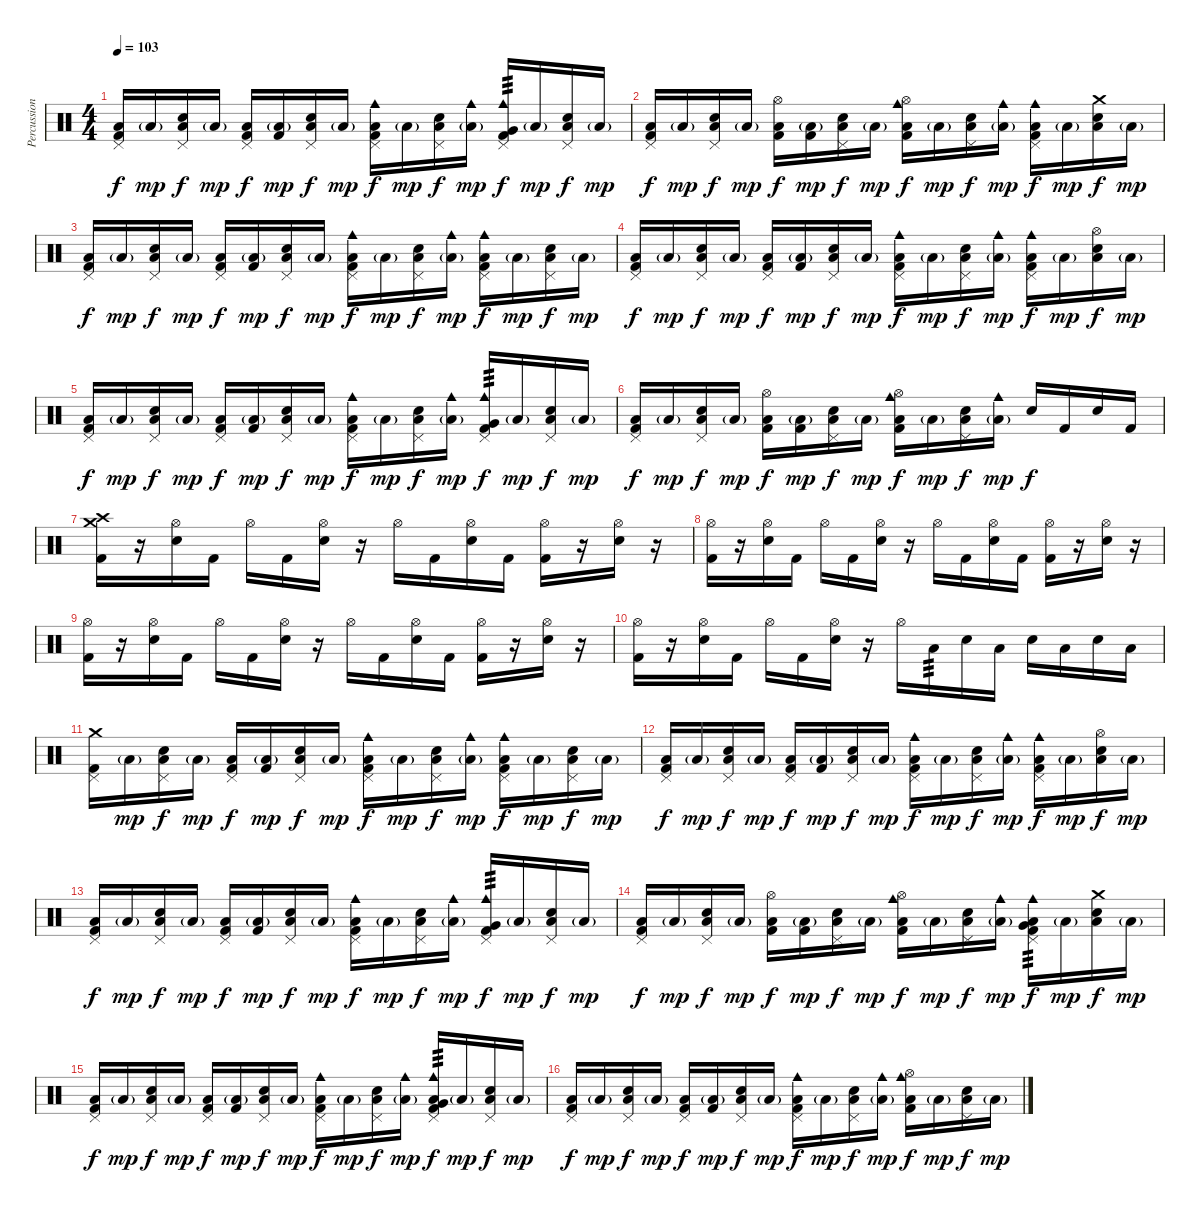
\track ("Percussion" "Percussion") {instrument percussion}
\staff {score}
\articulation defaults
\ts (4 4)
\tempo 103
\clef neutral
\ks c
("Low Floor Tom (hit)" "Kick (hit) 2" "Pedal Hi-Hat (hit)").16{dy f} "Low Floor Tom (hit)"{g}.16{dy mp} ("Low Floor Tom (hit)" "Electric Snare (hit)" "Pedal Hi-Hat (hit)").16{dy f} "Low Floor Tom (hit)"{g}.16{dy mp} ("Low Floor Tom (hit)" "Kick (hit) 2" "Pedal Hi-Hat (hit)").16{dy f} ("Low Floor Tom (hit)"{g} "Kick (hit) 2").16{dy mp} ("Low Floor Tom (hit)" "Electric Snare (hit)" "Pedal Hi-Hat (hit)").16{dy f} "Low Floor Tom (hit)"{g}.16{dy mp} ("Low Floor Tom (hit)" "Kick (hit) 2" "Cowbell medium (hit)" "Pedal Hi-Hat (hit)").16{dy f} "Low Floor Tom (hit)"{g}.16{dy mp} ("Low Floor Tom (hit)" "Electric Snare (hit)" "Pedal Hi-Hat (hit)").16{dy f} ("Low Floor Tom (hit)"{g} "Cowbell medium (hit)").16{dy mp} ("Very Low Tom (hit)" "Kick (hit) 2" "Cowbell medium (hit)" "Pedal Hi-Hat (hit)").16{tp 3 dy f} "Low Floor Tom (hit)"{g}.16{dy mp} ("Low Floor Tom (hit)" "Electric Snare (hit)" "Pedal Hi-Hat (hit)").16{dy f} "Low Floor Tom (hit)"{g}.16{dy mp} |
("Low Floor Tom (hit)" "Kick (hit) 2" "Pedal Hi-Hat (hit)").16{dy f} "Low Floor Tom (hit)"{g}.16{dy mp} ("Low Floor Tom (hit)" "Electric Snare (hit)" "Pedal Hi-Hat (hit)").16{dy f} "Low Floor Tom (hit)"{g}.16{dy mp} ("Low Floor Tom (hit)" "Kick (hit) 2" "Hi-Hat (open)").16{dy f} ("Low Floor Tom (hit)"{g} "Kick (hit) 2").16{dy mp} ("Low Floor Tom (hit)" "Electric Snare (hit)" "Pedal Hi-Hat (hit)").16{dy f} "Low Floor Tom (hit)"{g}.16{dy mp} ("Low Floor Tom (hit)" "Kick (hit) 2" "Cowbell medium (hit)" "Hi-Hat (open)").16{dy f} "Low Floor Tom (hit)"{g}.16{dy mp} ("Low Floor Tom (hit)" "Electric Snare (hit)" "Pedal Hi-Hat (hit)").16{dy f} ("Low Floor Tom (hit)"{g} "Cowbell medium (hit)").16{dy mp} ("Low Floor Tom (hit)" "Kick (hit) 2" "Cowbell medium (hit)" "Pedal Hi-Hat (hit)").16{dy f} "Low Floor Tom (hit)"{g}.16{dy mp} ("Low Floor Tom (hit)" "Electric Snare (hit)" "Crash medium (hit)").16{dy f} "Low Floor Tom (hit)"{g}.16{dy mp} |
("Low Floor Tom (hit)" "Kick (hit) 2" "Pedal Hi-Hat (hit)").16{dy f} "Low Floor Tom (hit)"{g}.16{dy mp} ("Low Floor Tom (hit)" "Electric Snare (hit)" "Pedal Hi-Hat (hit)").16{dy f} "Low Floor Tom (hit)"{g}.16{dy mp} ("Low Floor Tom (hit)" "Kick (hit) 2" "Pedal Hi-Hat (hit)").16{dy f} ("Low Floor Tom (hit)"{g} "Kick (hit) 2").16{dy mp} ("Low Floor Tom (hit)" "Electric Snare (hit)" "Pedal Hi-Hat (hit)").16{dy f} "Low Floor Tom (hit)"{g}.16{dy mp} ("Low Floor Tom (hit)" "Kick (hit) 2" "Cowbell medium (hit)" "Pedal Hi-Hat (hit)").16{dy f} "Low Floor Tom (hit)"{g}.16{dy mp} ("Low Floor Tom (hit)" "Electric Snare (hit)" "Pedal Hi-Hat (hit)").16{dy f} ("Low Floor Tom (hit)"{g} "Cowbell medium (hit)").16{dy mp} ("Low Floor Tom (hit)" "Kick (hit) 2" "Cowbell medium (hit)" "Pedal Hi-Hat (hit)").16{dy f} "Low Floor Tom (hit)"{g}.16{dy mp} ("Low Floor Tom (hit)" "Electric Snare (hit)" "Pedal Hi-Hat (hit)").16{dy f} "Low Floor Tom (hit)"{g}.16{dy mp} |
("Low Floor Tom (hit)" "Kick (hit) 2" "Pedal Hi-Hat (hit)").16{dy f} "Low Floor Tom (hit)"{g}.16{dy mp} ("Low Floor Tom (hit)" "Electric Snare (hit)" "Pedal Hi-Hat (hit)").16{dy f} "Low Floor Tom (hit)"{g}.16{dy mp} ("Low Floor Tom (hit)" "Kick (hit) 2" "Pedal Hi-Hat (hit)").16{dy f} ("Low Floor Tom (hit)"{g} "Kick (hit) 2").16{dy mp} ("Low Floor Tom (hit)" "Electric Snare (hit)" "Pedal Hi-Hat (hit)").16{dy f} "Low Floor Tom (hit)"{g}.16{dy mp} ("Low Floor Tom (hit)" "Kick (hit) 2" "Cowbell medium (hit)" "Pedal Hi-Hat (hit)").16{dy f} "Low Floor Tom (hit)"{g}.16{dy mp} ("Low Floor Tom (hit)" "Electric Snare (hit)" "Pedal Hi-Hat (hit)").16{dy f} ("Low Floor Tom (hit)"{g} "Cowbell medium (hit)").16{dy mp} ("Low Floor Tom (hit)" "Kick (hit) 2" "Cowbell medium (hit)" "Pedal Hi-Hat (hit)").16{dy f} "Low Floor Tom (hit)"{g}.16{dy mp} ("Low Floor Tom (hit)" "Electric Snare (hit)" "Hi-Hat (open)").16{dy f} "Low Floor Tom (hit)"{g}.16{dy mp} |
("Low Floor Tom (hit)" "Kick (hit) 2" "Pedal Hi-Hat (hit)").16{dy f} "Low Floor Tom (hit)"{g}.16{dy mp} ("Low Floor Tom (hit)" "Electric Snare (hit)" "Pedal Hi-Hat (hit)").16{dy f} "Low Floor Tom (hit)"{g}.16{dy mp} ("Low Floor Tom (hit)" "Kick (hit) 2" "Pedal Hi-Hat (hit)").16{dy f} ("Low Floor Tom (hit)"{g} "Kick (hit) 2").16{dy mp} ("Low Floor Tom (hit)" "Electric Snare (hit)" "Pedal Hi-Hat (hit)").16{dy f} "Low Floor Tom (hit)"{g}.16{dy mp} ("Low Floor Tom (hit)" "Kick (hit) 2" "Cowbell medium (hit)" "Pedal Hi-Hat (hit)").16{dy f} "Low Floor Tom (hit)"{g}.16{dy mp} ("Low Floor Tom (hit)" "Electric Snare (hit)" "Pedal Hi-Hat (hit)").16{dy f} ("Low Floor Tom (hit)"{g} "Cowbell medium (hit)").16{dy mp} ("Very Low Tom (hit)" "Kick (hit) 2" "Cowbell medium (hit)" "Pedal Hi-Hat (hit)").16{tp 3 dy f} "Low Floor Tom (hit)"{g}.16{dy mp} ("Low Floor Tom (hit)" "Electric Snare (hit)" "Pedal Hi-Hat (hit)").16{dy f} "Low Floor Tom (hit)"{g}.16{dy mp} |
("Low Floor Tom (hit)" "Kick (hit) 2" "Pedal Hi-Hat (hit)").16{dy f} "Low Floor Tom (hit)"{g}.16{dy mp} ("Low Floor Tom (hit)" "Electric Snare (hit)" "Pedal Hi-Hat (hit)").16{dy f} "Low Floor Tom (hit)"{g}.16{dy mp} ("Low Floor Tom (hit)" "Kick (hit) 2" "Hi-Hat (open)").16{dy f} ("Low Floor Tom (hit)"{g} "Kick (hit) 2").16{dy mp} ("Low Floor Tom (hit)" "Electric Snare (hit)" "Pedal Hi-Hat (hit)").16{dy f} "Low Floor Tom (hit)"{g}.16{dy mp} ("Low Floor Tom (hit)" "Kick (hit) 2" "Cowbell medium (hit)" "Hi-Hat (open)").16{dy f} "Low Floor Tom (hit)"{g}.16{dy mp} ("Low Floor Tom (hit)" "Electric Snare (hit)" "Pedal Hi-Hat (hit)").16{dy f} ("Low Floor Tom (hit)"{g} "Cowbell medium (hit)").16{dy mp} "Electric Snare (hit)".16{dy f} "Kick (hit) 2".16 "Electric Snare (hit)".16 "Kick (hit) 2".16 |
("Crash medium (hit)" "Kick (hit) 2" "Crash high (hit)").16 r.16 ("Hi-Hat (open)" "Electric Snare (hit)").16 "Kick (hit) 2".16 "Hi-Hat (open)".16 "Kick (hit) 2".16 ("Hi-Hat (open)" "Electric Snare (hit)").16 r.16 "Hi-Hat (open)".16 "Kick (hit) 2".16 ("Hi-Hat (open)" "Electric Snare (hit)").16 "Kick (hit) 2".16 ("Hi-Hat (open)" "Kick (hit) 2").16 r.16 ("Hi-Hat (open)" "Electric Snare (hit)").16 r.16 |
("Hi-Hat (open)" "Kick (hit) 2").16 r.16 ("Hi-Hat (open)" "Electric Snare (hit)").16 "Kick (hit) 2".16 "Hi-Hat (open)".16 "Kick (hit) 2".16 ("Hi-Hat (open)" "Electric Snare (hit)").16 r.16 "Hi-Hat (open)".16 "Kick (hit) 2".16 ("Hi-Hat (open)" "Electric Snare (hit)").16 "Kick (hit) 2".16 ("Hi-Hat (open)" "Kick (hit) 2").16 r.16 ("Hi-Hat (open)" "Electric Snare (hit)").16 r.16 |
("Hi-Hat (open)" "Kick (hit) 2").16 r.16 ("Hi-Hat (open)" "Electric Snare (hit)").16 "Kick (hit) 2".16 "Hi-Hat (open)".16 "Kick (hit) 2".16 ("Hi-Hat (open)" "Electric Snare (hit)").16 r.16 "Hi-Hat (open)".16 "Kick (hit) 2".16 ("Hi-Hat (open)" "Electric Snare (hit)").16 "Kick (hit) 2".16 ("Hi-Hat (open)" "Kick (hit) 2").16 r.16 ("Hi-Hat (open)" "Electric Snare (hit)").16 r.16 |
("Hi-Hat (open)" "Kick (hit) 2").16 r.16 ("Hi-Hat (open)" "Electric Snare (hit)").16 "Kick (hit) 2".16 "Hi-Hat (open)".16 "Kick (hit) 2".16 ("Hi-Hat (open)" "Electric Snare (hit)").16 r.16 "Hi-Hat (open)".16 "Low Tom (hit)".16{tp 3} "Electric Snare (hit)".16 "Low Tom (hit)".16 "Electric Snare (hit)".16 "Low Tom (hit)".16 "Electric Snare (hit)".16 "Low Tom (hit)".16 |
("Crash medium (hit)" "Kick (hit) 2" "Pedal Hi-Hat (hit)").16 "Low Floor Tom (hit)"{g}.16{dy mp} ("Low Floor Tom (hit)" "Electric Snare (hit)" "Pedal Hi-Hat (hit)").16{dy f} "Low Floor Tom (hit)"{g}.16{dy mp} ("Low Floor Tom (hit)" "Kick (hit) 2" "Pedal Hi-Hat (hit)").16{dy f} ("Low Floor Tom (hit)"{g} "Kick (hit) 2").16{dy mp} ("Low Floor Tom (hit)" "Electric Snare (hit)" "Pedal Hi-Hat (hit)").16{dy f} "Low Floor Tom (hit)"{g}.16{dy mp} ("Low Floor Tom (hit)" "Kick (hit) 2" "Cowbell medium (hit)" "Pedal Hi-Hat (hit)").16{dy f} "Low Floor Tom (hit)"{g}.16{dy mp} ("Low Floor Tom (hit)" "Electric Snare (hit)" "Pedal Hi-Hat (hit)").16{dy f} ("Low Floor Tom (hit)"{g} "Cowbell medium (hit)").16{dy mp} ("Low Floor Tom (hit)" "Kick (hit) 2" "Cowbell medium (hit)" "Pedal Hi-Hat (hit)").16{dy f} "Low Floor Tom (hit)"{g}.16{dy mp} ("Low Floor Tom (hit)" "Electric Snare (hit)" "Pedal Hi-Hat (hit)").16{dy f} "Low Floor Tom (hit)"{g}.16{dy mp} |
("Low Floor Tom (hit)" "Kick (hit) 2" "Pedal Hi-Hat (hit)").16{dy f} "Low Floor Tom (hit)"{g}.16{dy mp} ("Low Floor Tom (hit)" "Electric Snare (hit)" "Pedal Hi-Hat (hit)").16{dy f} "Low Floor Tom (hit)"{g}.16{dy mp} ("Low Floor Tom (hit)" "Kick (hit) 2" "Pedal Hi-Hat (hit)").16{dy f} ("Low Floor Tom (hit)"{g} "Kick (hit) 2").16{dy mp} ("Low Floor Tom (hit)" "Electric Snare (hit)" "Pedal Hi-Hat (hit)").16{dy f} "Low Floor Tom (hit)"{g}.16{dy mp} ("Low Floor Tom (hit)" "Kick (hit) 2" "Cowbell medium (hit)" "Pedal Hi-Hat (hit)").16{dy f} "Low Floor Tom (hit)"{g}.16{dy mp} ("Low Floor Tom (hit)" "Electric Snare (hit)" "Pedal Hi-Hat (hit)").16{dy f} ("Low Floor Tom (hit)"{g} "Cowbell medium (hit)").16{dy mp} ("Low Floor Tom (hit)" "Kick (hit) 2" "Cowbell medium (hit)" "Pedal Hi-Hat (hit)").16{dy f} "Low Floor Tom (hit)"{g}.16{dy mp} ("Low Floor Tom (hit)" "Electric Snare (hit)" "Hi-Hat (open)").16{dy f} "Low Floor Tom (hit)"{g}.16{dy mp} |
("Low Floor Tom (hit)" "Kick (hit) 2" "Pedal Hi-Hat (hit)").16{dy f} "Low Floor Tom (hit)"{g}.16{dy mp} ("Low Floor Tom (hit)" "Electric Snare (hit)" "Pedal Hi-Hat (hit)").16{dy f} "Low Floor Tom (hit)"{g}.16{dy mp} ("Low Floor Tom (hit)" "Kick (hit) 2" "Pedal Hi-Hat (hit)").16{dy f} ("Low Floor Tom (hit)"{g} "Kick (hit) 2").16{dy mp} ("Low Floor Tom (hit)" "Electric Snare (hit)" "Pedal Hi-Hat (hit)").16{dy f} "Low Floor Tom (hit)"{g}.16{dy mp} ("Low Floor Tom (hit)" "Kick (hit) 2" "Cowbell medium (hit)" "Pedal Hi-Hat (hit)").16{dy f} "Low Floor Tom (hit)"{g}.16{dy mp} ("Low Floor Tom (hit)" "Electric Snare (hit)" "Pedal Hi-Hat (hit)").16{dy f} ("Low Floor Tom (hit)"{g} "Cowbell medium (hit)").16{dy mp} ("Very Low Tom (hit)" "Kick (hit) 2" "Cowbell medium (hit)" "Pedal Hi-Hat (hit)").16{tp 3 dy f} "Low Floor Tom (hit)"{g}.16{dy mp} ("Low Floor Tom (hit)" "Electric Snare (hit)" "Pedal Hi-Hat (hit)").16{dy f} "Low Floor Tom (hit)"{g}.16{dy mp} |
("Low Floor Tom (hit)" "Kick (hit) 2" "Pedal Hi-Hat (hit)").16{dy f} "Low Floor Tom (hit)"{g}.16{dy mp} ("Low Floor Tom (hit)" "Electric Snare (hit)" "Pedal Hi-Hat (hit)").16{dy f} "Low Floor Tom (hit)"{g}.16{dy mp} ("Low Floor Tom (hit)" "Kick (hit) 2" "Hi-Hat (open)").16{dy f} ("Low Floor Tom (hit)"{g} "Kick (hit) 2").16{dy mp} ("Low Floor Tom (hit)" "Electric Snare (hit)" "Pedal Hi-Hat (hit)").16{dy f} "Low Floor Tom (hit)"{g}.16{dy mp} ("Low Floor Tom (hit)" "Kick (hit) 2" "Cowbell medium (hit)" "Hi-Hat (open)").16{dy f} "Low Floor Tom (hit)"{g}.16{dy mp} ("Low Floor Tom (hit)" "Electric Snare (hit)" "Pedal Hi-Hat (hit)").16{dy f} ("Low Floor Tom (hit)"{g} "Cowbell medium (hit)").16{dy mp} ("Low Floor Tom (hit)" "Kick (hit) 2" "Cowbell medium (hit)" "Pedal Hi-Hat (hit)" "Very Low Tom (hit)").16{tp 3 dy f} "Low Floor Tom (hit)"{g}.16{dy mp} ("Low Floor Tom (hit)" "Electric Snare (hit)" "Crash medium (hit)").16{dy f} "Low Floor Tom (hit)"{g}.16{dy mp} |
("Low Floor Tom (hit)" "Kick (hit) 2" "Pedal Hi-Hat (hit)").16{dy f} "Low Floor Tom (hit)"{g}.16{dy mp} ("Low Floor Tom (hit)" "Electric Snare (hit)" "Pedal Hi-Hat (hit)").16{dy f} "Low Floor Tom (hit)"{g}.16{dy mp} ("Low Floor Tom (hit)" "Kick (hit) 2" "Pedal Hi-Hat (hit)").16{dy f} ("Low Floor Tom (hit)"{g} "Kick (hit) 2").16{dy mp} ("Low Floor Tom (hit)" "Electric Snare (hit)" "Pedal Hi-Hat (hit)").16{dy f} "Low Floor Tom (hit)"{g}.16{dy mp} ("Low Floor Tom (hit)" "Kick (hit) 2" "Cowbell medium (hit)" "Pedal Hi-Hat (hit)").16{dy f} "Low Floor Tom (hit)"{g}.16{dy mp} ("Low Floor Tom (hit)" "Electric Snare (hit)" "Pedal Hi-Hat (hit)").16{dy f} ("Low Floor Tom (hit)"{g} "Cowbell medium (hit)").16{dy mp} ("Low Floor Tom (hit)" "Kick (hit) 2" "Cowbell medium (hit)" "Pedal Hi-Hat (hit)" "Very Low Tom (hit)").16{tp 3 dy f} "Low Floor Tom (hit)"{g}.16{dy mp} ("Low Floor Tom (hit)" "Electric Snare (hit)" "Pedal Hi-Hat (hit)").16{dy f} "Low Floor Tom (hit)"{g}.16{dy mp} |
("Low Floor Tom (hit)" "Kick (hit) 2" "Pedal Hi-Hat (hit)").16{dy f} "Low Floor Tom (hit)"{g}.16{dy mp} ("Low Floor Tom (hit)" "Electric Snare (hit)" "Pedal Hi-Hat (hit)").16{dy f} "Low Floor Tom (hit)"{g}.16{dy mp} ("Low Floor Tom (hit)" "Kick (hit) 2" "Pedal Hi-Hat (hit)").16{dy f} ("Low Floor Tom (hit)"{g} "Kick (hit) 2").16{dy mp} ("Low Floor Tom (hit)" "Electric Snare (hit)" "Pedal Hi-Hat (hit)").16{dy f} "Low Floor Tom (hit)"{g}.16{dy mp} ("Low Floor Tom (hit)" "Kick (hit) 2" "Cowbell medium (hit)" "Pedal Hi-Hat (hit)").16{dy f} "Low Floor Tom (hit)"{g}.16{dy mp} ("Low Floor Tom (hit)" "Electric Snare (hit)" "Pedal Hi-Hat (hit)").16{dy f} ("Low Floor Tom (hit)"{g} "Cowbell medium (hit)").16{dy mp} ("Low Floor Tom (hit)" "Kick (hit) 2" "Cowbell medium (hit)" "Hi-Hat (open)").16{dy f} "Low Floor Tom (hit)"{g}.16{dy mp} ("Low Floor Tom (hit)" "Electric Snare (hit)" "Pedal Hi-Hat (hit)").16{dy f} "Low Floor Tom (hit)"{g}.16{dy mp}
